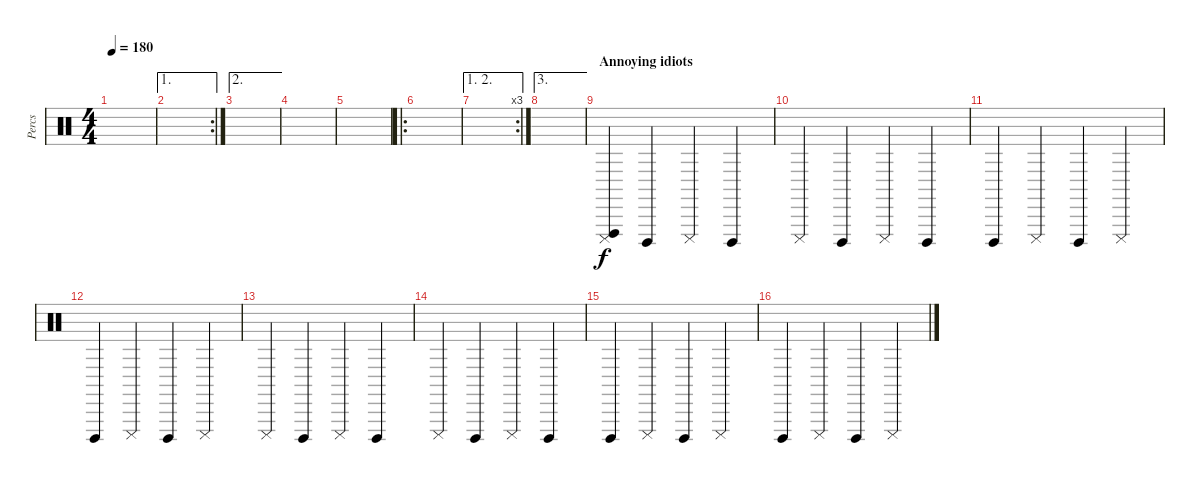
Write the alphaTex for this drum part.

\track ("Percs" "Percs") {instrument percussion}
\staff {score}
\articulation defaults
\ts (4 4)
\tempo 180
\clef neutral
\ks c
|
\ae 1
\rc 2
|
\ae 2
|
|
|
\ro
|
\ae (1 2)
\rc 3
|
\ae 3
|
\section ("" "Annoying idiots")
("Cuica (mute)" "Vibraslap (hit)").4 "Cuica (open)".4{dy f} "Cuica (mute)".4 "Cuica (open)".4 |
"Cuica (mute)".4 "Cuica (open)".4 "Cuica (mute)".4 "Cuica (open)".4 |
"Cuica (open)".4 "Cuica (mute)".4 "Cuica (open)".4 "Cuica (mute)".4 |
"Cuica (open)".4 "Cuica (mute)".4 "Cuica (open)".4 "Cuica (mute)".4 |
"Cuica (mute)".4 "Cuica (open)".4 "Cuica (mute)".4 "Cuica (open)".4 |
"Cuica (mute)".4 "Cuica (open)".4 "Cuica (mute)".4 "Cuica (open)".4 |
"Cuica (open)".4 "Cuica (mute)".4 "Cuica (open)".4 "Cuica (mute)".4 |
"Cuica (open)".4 "Cuica (mute)".4 "Cuica (open)".4 "Cuica (mute)".4
